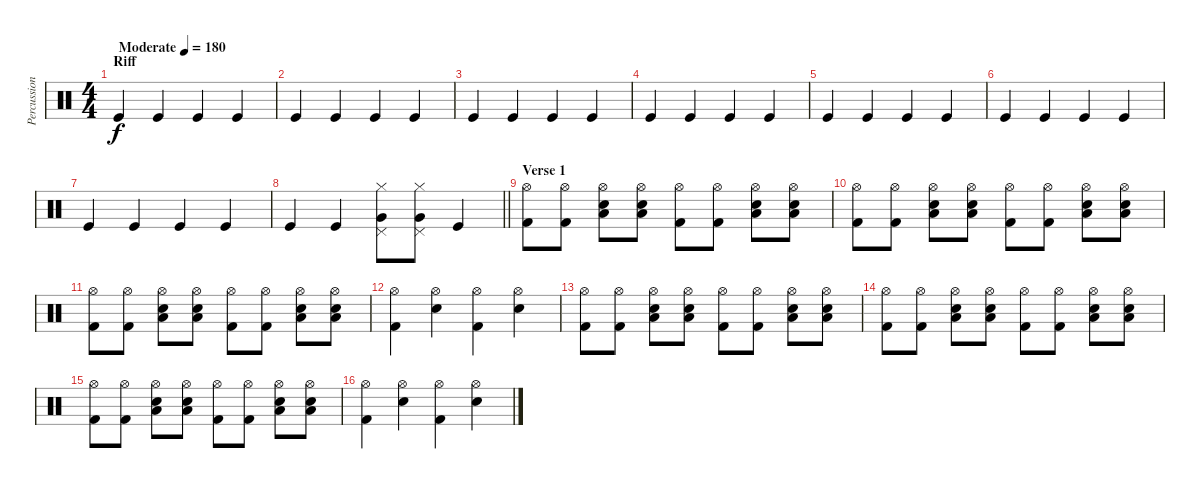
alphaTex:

\track ("Percussioni" "Percussion") {instrument percussion}
\staff {score}
\articulation defaults
\ts (4 4)
\section ("" "Riff")
\tempo (180 "Moderate")
\clef neutral
\ks c "Kick (hit)".4{dy f} "Kick (hit)".4 "Kick (hit)".4 "Kick (hit)".4
|
"Kick (hit)".4 "Kick (hit)".4 "Kick (hit)".4 "Kick (hit)".4 |
"Kick (hit)".4 "Kick (hit)".4 "Kick (hit)".4 "Kick (hit)".4 |
"Kick (hit)".4 "Kick (hit)".4 "Kick (hit)".4 "Kick (hit)".4 |
"Kick (hit)".4 "Kick (hit)".4 "Kick (hit)".4 "Kick (hit)".4 |
"Kick (hit)".4 "Kick (hit)".4 "Kick (hit)".4 "Kick (hit)".4 |
"Kick (hit)".4 "Kick (hit)".4 "Kick (hit)".4 "Kick (hit)".4 |
\barLineRight lightlight "Kick (hit)".4 "Kick (hit)".4
("Hi-Hat (closed)" "Very Low Tom (hit)" "Pedal Hi-Hat (hit)").8 ("Hi-Hat (closed)" "Very Low Tom (hit)" "Pedal Hi-Hat (hit)").8 "Kick (hit)".4 |
\section ("" "Verse 1")
("Hi-Hat (open)" "Kick (hit) 2").8 ("Hi-Hat (open)" "Kick (hit) 2").8 ("Hi-Hat (open)" "Electric Snare (hit)" "Low Floor Tom (hit)").8 ("Hi-Hat (open)" "Electric Snare (hit)" "Low Floor Tom (hit)").8 ("Hi-Hat (open)" "Kick (hit) 2").8 ("Hi-Hat (open)" "Kick (hit) 2").8 ("Hi-Hat (open)" "Electric Snare (hit)" "Low Floor Tom (hit)").8 ("Hi-Hat (open)" "Electric Snare (hit)" "Low Floor Tom (hit)").8 |
("Hi-Hat (open)" "Kick (hit) 2").8 ("Hi-Hat (open)" "Kick (hit) 2").8 ("Hi-Hat (open)" "Electric Snare (hit)" "Low Floor Tom (hit)").8 ("Hi-Hat (open)" "Electric Snare (hit)" "Low Floor Tom (hit)").8 ("Hi-Hat (open)" "Kick (hit) 2").8 ("Hi-Hat (open)" "Kick (hit) 2").8 ("Hi-Hat (open)" "Electric Snare (hit)" "Low Floor Tom (hit)").8 ("Hi-Hat (open)" "Electric Snare (hit)" "Low Floor Tom (hit)").8 |
("Hi-Hat (open)" "Kick (hit) 2").8 ("Hi-Hat (open)" "Kick (hit) 2").8 ("Hi-Hat (open)" "Electric Snare (hit)" "Low Floor Tom (hit)").8 ("Hi-Hat (open)" "Electric Snare (hit)" "Low Floor Tom (hit)").8 ("Hi-Hat (open)" "Kick (hit) 2").8 ("Hi-Hat (open)" "Kick (hit) 2").8 ("Hi-Hat (open)" "Electric Snare (hit)" "Low Floor Tom (hit)").8 ("Hi-Hat (open)" "Electric Snare (hit)" "Low Floor Tom (hit)").8 |
("Hi-Hat (open)" "Kick (hit) 2").4 ("Hi-Hat (open)" "Electric Snare (hit)").4 ("Hi-Hat (open)" "Kick (hit) 2").4 ("Hi-Hat (open)" "Electric Snare (hit)").4 |
("Hi-Hat (open)" "Kick (hit) 2").8 ("Hi-Hat (open)" "Kick (hit) 2").8 ("Hi-Hat (open)" "Electric Snare (hit)" "Low Floor Tom (hit)").8 ("Hi-Hat (open)" "Electric Snare (hit)" "Low Floor Tom (hit)").8 ("Hi-Hat (open)" "Kick (hit) 2").8 ("Hi-Hat (open)" "Kick (hit) 2").8 ("Hi-Hat (open)" "Electric Snare (hit)" "Low Floor Tom (hit)").8 ("Hi-Hat (open)" "Electric Snare (hit)" "Low Floor Tom (hit)").8 |
("Hi-Hat (open)" "Kick (hit) 2").8 ("Hi-Hat (open)" "Kick (hit) 2").8 ("Hi-Hat (open)" "Electric Snare (hit)" "Low Floor Tom (hit)").8 ("Hi-Hat (open)" "Electric Snare (hit)" "Low Floor Tom (hit)").8 ("Hi-Hat (open)" "Kick (hit) 2").8 ("Hi-Hat (open)" "Kick (hit) 2").8 ("Hi-Hat (open)" "Electric Snare (hit)" "Low Floor Tom (hit)").8 ("Hi-Hat (open)" "Electric Snare (hit)" "Low Floor Tom (hit)").8 |
("Hi-Hat (open)" "Kick (hit) 2").8 ("Hi-Hat (open)" "Kick (hit) 2").8 ("Hi-Hat (open)" "Electric Snare (hit)" "Low Floor Tom (hit)").8 ("Hi-Hat (open)" "Electric Snare (hit)" "Low Floor Tom (hit)").8 ("Hi-Hat (open)" "Kick (hit) 2").8 ("Hi-Hat (open)" "Kick (hit) 2").8 ("Hi-Hat (open)" "Electric Snare (hit)" "Low Floor Tom (hit)").8 ("Hi-Hat (open)" "Electric Snare (hit)" "Low Floor Tom (hit)").8 |
("Hi-Hat (open)" "Kick (hit) 2").4 ("Hi-Hat (open)" "Electric Snare (hit)").4 ("Hi-Hat (open)" "Kick (hit) 2").4 ("Hi-Hat (open)" "Electric Snare (hit)").4
